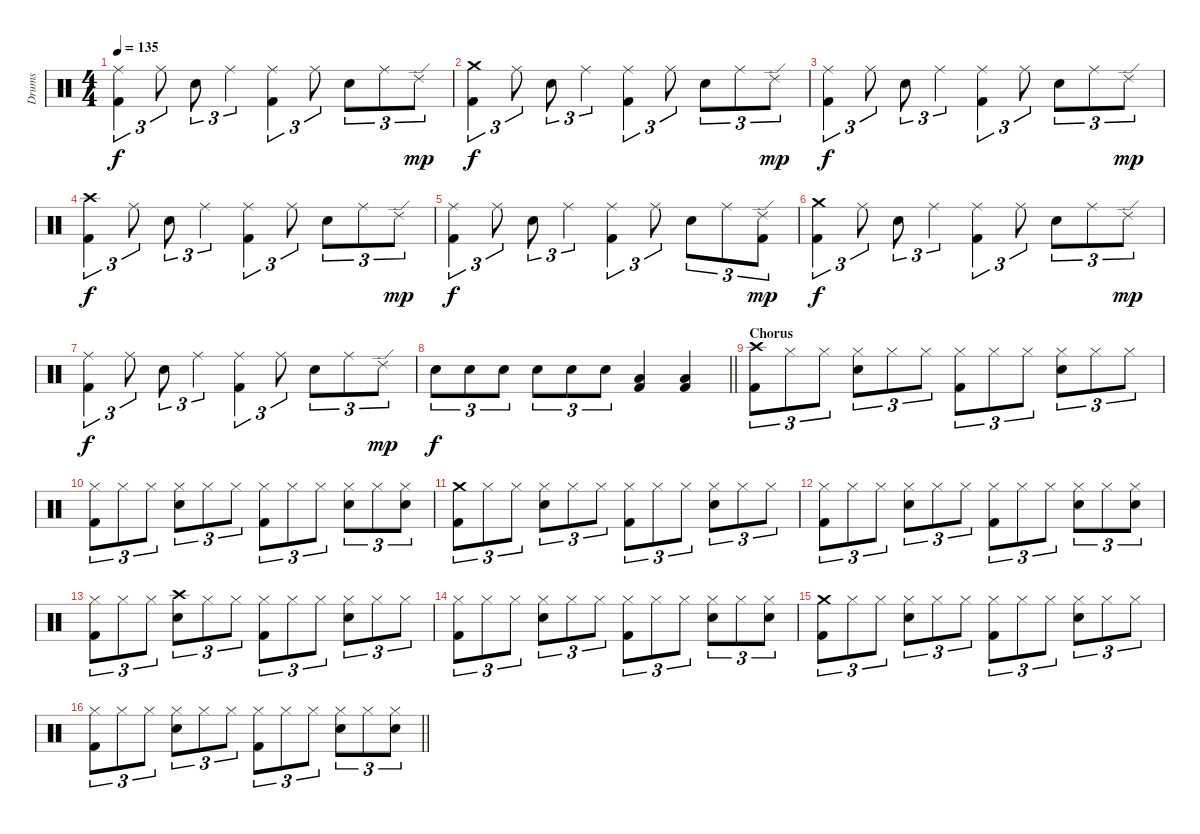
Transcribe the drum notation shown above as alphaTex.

\track ("Drums" "Drums") {instrument percussion}
\staff {score}
\articulation defaults
\ts (4 4)
\tempo 135
\clef neutral
\ks c
("Ride (middle)" "Kick (hit) 2").4{tu (3 2) dy f} "Ride (middle)".8{tu (3 2)} "Snare (hit) 2".8{tu (3 2)} "Ride (middle)".4{tu (3 2)} ("Ride (middle)" "Kick (hit) 2").4{tu (3 2)} "Ride (middle)".8{tu (3 2)} "Snare (hit) 2".8{tu (3 2)} "Ride (middle)".8{tu (3 2)} "Ride (edge) 2".8{tu (3 2) dy mp} |
("Crash medium (hit)" "Kick (hit) 2").4{tu (3 2) dy f} "Ride (middle)".8{tu (3 2)} "Snare (hit) 2".8{tu (3 2)} "Ride (middle)".4{tu (3 2)} ("Ride (middle)" "Kick (hit) 2").4{tu (3 2)} "Ride (middle)".8{tu (3 2)} "Snare (hit) 2".8{tu (3 2)} "Ride (middle)".8{tu (3 2)} "Ride (edge) 2".8{tu (3 2) dy mp} |
("Ride (middle)" "Kick (hit) 2").4{tu (3 2) dy f} "Ride (middle)".8{tu (3 2)} "Snare (hit) 2".8{tu (3 2)} "Ride (middle)".4{tu (3 2)} ("Ride (middle)" "Kick (hit) 2").4{tu (3 2)} "Ride (middle)".8{tu (3 2)} "Snare (hit) 2".8{tu (3 2)} "Ride (middle)".8{tu (3 2)} "Ride (edge) 2".8{tu (3 2) dy mp} |
("Crash high (hit)" "Kick (hit) 2").4{tu (3 2) dy f} "Ride (middle)".8{tu (3 2)} "Snare (hit) 2".8{tu (3 2)} "Ride (middle)".4{tu (3 2)} ("Ride (middle)" "Kick (hit) 2").4{tu (3 2)} "Ride (middle)".8{tu (3 2)} "Snare (hit) 2".8{tu (3 2)} "Ride (middle)".8{tu (3 2)} "Ride (edge) 2".8{tu (3 2) dy mp} |
("Ride (middle)" "Kick (hit) 2").4{tu (3 2) dy f} "Ride (middle)".8{tu (3 2)} "Snare (hit) 2".8{tu (3 2)} "Ride (middle)".4{tu (3 2)} ("Ride (middle)" "Kick (hit) 2").4{tu (3 2)} "Ride (middle)".8{tu (3 2)} "Snare (hit) 2".8{tu (3 2)} "Ride (middle)".8{tu (3 2)} ("Ride (edge) 2" "Kick (hit) 2").8{tu (3 2) dy mp} |
("Crash medium (hit)" "Kick (hit) 2").4{tu (3 2) dy f} "Ride (middle)".8{tu (3 2)} "Snare (hit) 2".8{tu (3 2)} "Ride (middle)".4{tu (3 2)} ("Ride (middle)" "Kick (hit) 2").4{tu (3 2)} "Ride (middle)".8{tu (3 2)} "Snare (hit) 2".8{tu (3 2)} "Ride (middle)".8{tu (3 2)} "Ride (edge) 2".8{tu (3 2) dy mp} |
("Ride (middle)" "Kick (hit) 2").4{tu (3 2) dy f} "Ride (middle)".8{tu (3 2)} "Snare (hit) 2".8{tu (3 2)} "Ride (middle)".4{tu (3 2)} ("Ride (middle)" "Kick (hit) 2").4{tu (3 2)} "Ride (middle)".8{tu (3 2)} "Snare (hit) 2".8{tu (3 2)} "Ride (middle)".8{tu (3 2)} "Ride (edge) 2".8{tu (3 2) dy mp} |
\barLineRight lightlight "Snare (hit) 2".8{tu (3 2) dy f} "Snare (hit) 2".8{tu (3 2)} "Snare (hit) 2".8{tu (3 2)} "Snare (hit) 2".8{tu (3 2)} "Snare (hit) 2".8{tu (3 2)} "Snare (hit) 2".8{tu (3 2)}
("Low Tom (hit)" "Kick (hit) 2").4 ("Low Tom (hit)" "Kick (hit) 2").4 |
\section ("" "Chorus")
("Crash high (hit)" "Kick (hit) 2").8{tu (3 2)} "Hi-Hat (closed)".8{tu (3 2)} "Hi-Hat (closed)".8{tu (3 2)} ("Hi-Hat (closed)" "Snare (hit) 2").8{tu (3 2)} "Hi-Hat (closed)".8{tu (3 2)} "Hi-Hat (closed)".8{tu (3 2)} ("Hi-Hat (closed)" "Kick (hit) 2").8{tu (3 2)} "Hi-Hat (closed)".8{tu (3 2)} "Hi-Hat (closed)".8{tu (3 2)} ("Hi-Hat (closed)" "Snare (hit) 2").8{tu (3 2)} "Hi-Hat (closed)".8{tu (3 2)} "Hi-Hat (closed)".8{tu (3 2)} |
("Hi-Hat (closed)" "Kick (hit) 2").8{tu (3 2)} "Hi-Hat (closed)".8{tu (3 2)} "Hi-Hat (closed)".8{tu (3 2)} ("Hi-Hat (closed)" "Snare (hit) 2").8{tu (3 2)} "Hi-Hat (closed)".8{tu (3 2)} "Hi-Hat (closed)".8{tu (3 2)} ("Hi-Hat (closed)" "Kick (hit) 2").8{tu (3 2)} "Hi-Hat (closed)".8{tu (3 2)} "Hi-Hat (closed)".8{tu (3 2)} ("Hi-Hat (closed)" "Snare (hit) 2").8{tu (3 2)} "Hi-Hat (closed)".8{tu (3 2)} ("Hi-Hat (closed)" "Snare (hit) 2").8{tu (3 2)} |
("Crash medium (hit)" "Kick (hit) 2").8{tu (3 2)} "Hi-Hat (closed)".8{tu (3 2)} "Hi-Hat (closed)".8{tu (3 2)} ("Hi-Hat (closed)" "Snare (hit) 2").8{tu (3 2)} "Hi-Hat (closed)".8{tu (3 2)} "Hi-Hat (closed)".8{tu (3 2)} ("Hi-Hat (closed)" "Kick (hit) 2").8{tu (3 2)} "Hi-Hat (closed)".8{tu (3 2)} "Hi-Hat (closed)".8{tu (3 2)} ("Hi-Hat (closed)" "Snare (hit) 2").8{tu (3 2)} "Hi-Hat (closed)".8{tu (3 2)} "Hi-Hat (closed)".8{tu (3 2)} |
("Hi-Hat (closed)" "Kick (hit) 2").8{tu (3 2)} "Hi-Hat (closed)".8{tu (3 2)} "Hi-Hat (closed)".8{tu (3 2)} ("Hi-Hat (closed)" "Snare (hit) 2").8{tu (3 2)} "Hi-Hat (closed)".8{tu (3 2)} "Hi-Hat (closed)".8{tu (3 2)} ("Hi-Hat (closed)" "Kick (hit) 2").8{tu (3 2)} "Hi-Hat (closed)".8{tu (3 2)} "Hi-Hat (closed)".8{tu (3 2)} ("Hi-Hat (closed)" "Snare (hit) 2").8{tu (3 2)} "Hi-Hat (closed)".8{tu (3 2)} ("Hi-Hat (closed)" "Snare (hit) 2").8{tu (3 2)} |
("Hi-Hat (closed)" "Kick (hit) 2").8{tu (3 2)} "Hi-Hat (closed)".8{tu (3 2)} "Hi-Hat (closed)".8{tu (3 2)} ("Crash high (hit)" "Snare (hit) 2").8{tu (3 2)} "Hi-Hat (closed)".8{tu (3 2)} "Hi-Hat (closed)".8{tu (3 2)} ("Hi-Hat (closed)" "Kick (hit) 2").8{tu (3 2)} "Hi-Hat (closed)".8{tu (3 2)} "Hi-Hat (closed)".8{tu (3 2)} ("Hi-Hat (closed)" "Snare (hit) 2").8{tu (3 2)} "Hi-Hat (closed)".8{tu (3 2)} "Hi-Hat (closed)".8{tu (3 2)} |
("Hi-Hat (closed)" "Kick (hit) 2").8{tu (3 2)} "Hi-Hat (closed)".8{tu (3 2)} "Hi-Hat (closed)".8{tu (3 2)} ("Hi-Hat (closed)" "Snare (hit) 2").8{tu (3 2)} "Hi-Hat (closed)".8{tu (3 2)} "Hi-Hat (closed)".8{tu (3 2)} ("Hi-Hat (closed)" "Kick (hit) 2").8{tu (3 2)} "Hi-Hat (closed)".8{tu (3 2)} "Hi-Hat (closed)".8{tu (3 2)} ("Hi-Hat (closed)" "Snare (hit) 2").8{tu (3 2)} "Hi-Hat (closed)".8{tu (3 2)} ("Hi-Hat (closed)" "Snare (hit) 2").8{tu (3 2)} |
("Crash medium (hit)" "Kick (hit) 2").8{tu (3 2)} "Hi-Hat (closed)".8{tu (3 2)} "Hi-Hat (closed)".8{tu (3 2)} ("Hi-Hat (closed)" "Snare (hit) 2").8{tu (3 2)} "Hi-Hat (closed)".8{tu (3 2)} "Hi-Hat (closed)".8{tu (3 2)} ("Hi-Hat (closed)" "Kick (hit) 2").8{tu (3 2)} "Hi-Hat (closed)".8{tu (3 2)} "Hi-Hat (closed)".8{tu (3 2)} ("Hi-Hat (closed)" "Snare (hit) 2").8{tu (3 2)} "Hi-Hat (closed)".8{tu (3 2)} "Hi-Hat (closed)".8{tu (3 2)} |
\barLineRight lightlight
("Hi-Hat (closed)" "Kick (hit) 2").8{tu (3 2)} "Hi-Hat (closed)".8{tu (3 2)} "Hi-Hat (closed)".8{tu (3 2)} ("Hi-Hat (closed)" "Snare (hit) 2").8{tu (3 2)} "Hi-Hat (closed)".8{tu (3 2)} "Hi-Hat (closed)".8{tu (3 2)} ("Hi-Hat (closed)" "Kick (hit) 2").8{tu (3 2)} "Hi-Hat (closed)".8{tu (3 2)} "Hi-Hat (closed)".8{tu (3 2)} ("Hi-Hat (closed)" "Snare (hit) 2").8{tu (3 2)} "Hi-Hat (closed)".8{tu (3 2)} ("Hi-Hat (closed)" "Snare (hit) 2").8{tu (3 2)}
